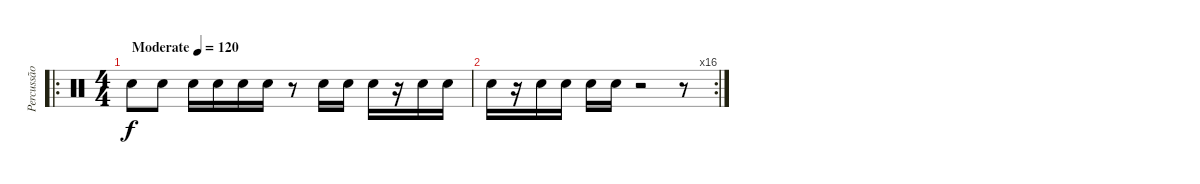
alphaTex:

\track ("Percussão" "Percussão") {instrument percussion}
\staff {score}
\articulation defaults
\ro
\ts (4 4)
\tempo (120 "Moderate")
\clef neutral
\ks c "Electric Snare (hit)".8{dy f} "Electric Snare (hit)".8 "Electric Snare (hit)".16 "Electric Snare (hit)".16 "Electric Snare (hit)".16 "Electric Snare (hit)".16
r.8 "Electric Snare (hit)".16 "Electric Snare (hit)".16 "Electric Snare (hit)".16 r.16 "Electric Snare (hit)".16 "Electric Snare (hit)".16 |
\rc 16 "Electric Snare (hit)".16
r.16 "Electric Snare (hit)".16 "Electric Snare (hit)".16 "Electric Snare (hit)".16 "Electric Snare (hit)".16 r.2 r.8
